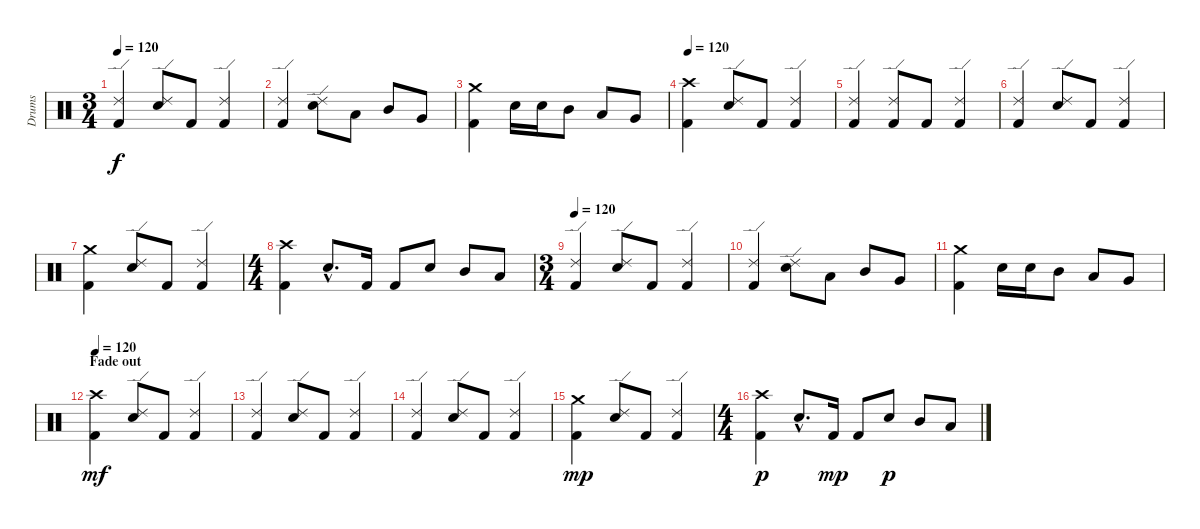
\track ("Drums" "Drums") {instrument percussion}
\staff {score}
\articulation defaults
\ts (3 4)
\tempo 120
\clef neutral
\ks c
("Kick (hit) 2" "Ride (edge) 2").4{dy f} ("Snare (hit) 2" "Ride (edge) 2").8 "Kick (hit) 2".8 ("Kick (hit) 2" "Ride (edge) 2").4 |
("Kick (hit) 2" "Ride (edge) 2").4 ("Snare (hit) 2" "Ride (edge) 2").8 "Low Tom (hit)".8 "Mid Tom (hit)".8 "Very Low Tom (hit)".8 |
("Kick (hit) 2" "Crash medium (hit)").4 "Snare (hit) 2".16 "Snare (hit) 2".16 "Mid Tom (hit)".8 "Low Tom (hit)".8 "Very Low Tom (hit)".8 |
\tempo 120
("Kick (hit) 2" "Crash high (hit)").4 ("Snare (hit) 2" "Ride (edge) 2").8 "Kick (hit) 2".8 ("Kick (hit) 2" "Ride (edge) 2").4 |
("Kick (hit) 2" "Ride (edge) 2").4 ("Kick (hit) 2" "Ride (edge) 2").8 "Kick (hit) 2".8 ("Kick (hit) 2" "Ride (edge) 2").4 |
("Kick (hit) 2" "Ride (edge) 2").4 ("Snare (hit) 2" "Ride (edge) 2").8 "Kick (hit) 2".8 ("Kick (hit) 2" "Ride (edge) 2").4 |
("Kick (hit) 2" "Crash medium (hit)").4 ("Snare (hit) 2" "Ride (edge) 2").8 "Kick (hit) 2".8 ("Kick (hit) 2" "Ride (edge) 2").4 |
\ts (4 4)
("Kick (hit) 2" "Crash high (hit)").4 "Snare (hit) 2"{hac}.8{d} "Kick (hit) 2".16 "Kick (hit) 2".8 "Snare (hit) 2".8 "Mid Tom (hit)".8 "Low Tom (hit)".8 |
\ts (3 4)
\tempo 120
("Kick (hit) 2" "Ride (edge) 2").4 ("Snare (hit) 2" "Ride (edge) 2").8 "Kick (hit) 2".8 ("Kick (hit) 2" "Ride (edge) 2").4 |
("Kick (hit) 2" "Ride (edge) 2").4 ("Snare (hit) 2" "Ride (edge) 2").8 "Low Tom (hit)".8 "Mid Tom (hit)".8 "Very Low Tom (hit)".8 |
("Kick (hit) 2" "Crash medium (hit)").4 "Snare (hit) 2".16 "Snare (hit) 2".16 "Mid Tom (hit)".8 "Low Tom (hit)".8 "Very Low Tom (hit)".8 |
\section ("" "Fade out")
\tempo 120
("Kick (hit) 2" "Crash high (hit)").4{dy mf} ("Snare (hit) 2" "Ride (edge) 2").8 "Kick (hit) 2".8 ("Kick (hit) 2" "Ride (edge) 2").4 |
("Kick (hit) 2" "Ride (edge) 2").4 ("Snare (hit) 2" "Ride (edge) 2").8 "Kick (hit) 2".8 ("Kick (hit) 2" "Ride (edge) 2").4 |
("Kick (hit) 2" "Ride (edge) 2").4 ("Snare (hit) 2" "Ride (edge) 2").8 "Kick (hit) 2".8 ("Kick (hit) 2" "Ride (edge) 2").4 |
("Kick (hit) 2" "Crash medium (hit)").4{dy mp} ("Snare (hit) 2" "Ride (edge) 2").8 "Kick (hit) 2".8 ("Kick (hit) 2" "Ride (edge) 2").4 |
\ts (4 4)
("Kick (hit) 2" "Crash high (hit)").4{dy p} "Snare (hit) 2"{hac}.8{d} "Kick (hit) 2".16{dy mp} "Kick (hit) 2".8 "Snare (hit) 2".8{dy p} "Mid Tom (hit)".8 "Low Tom (hit)".8
